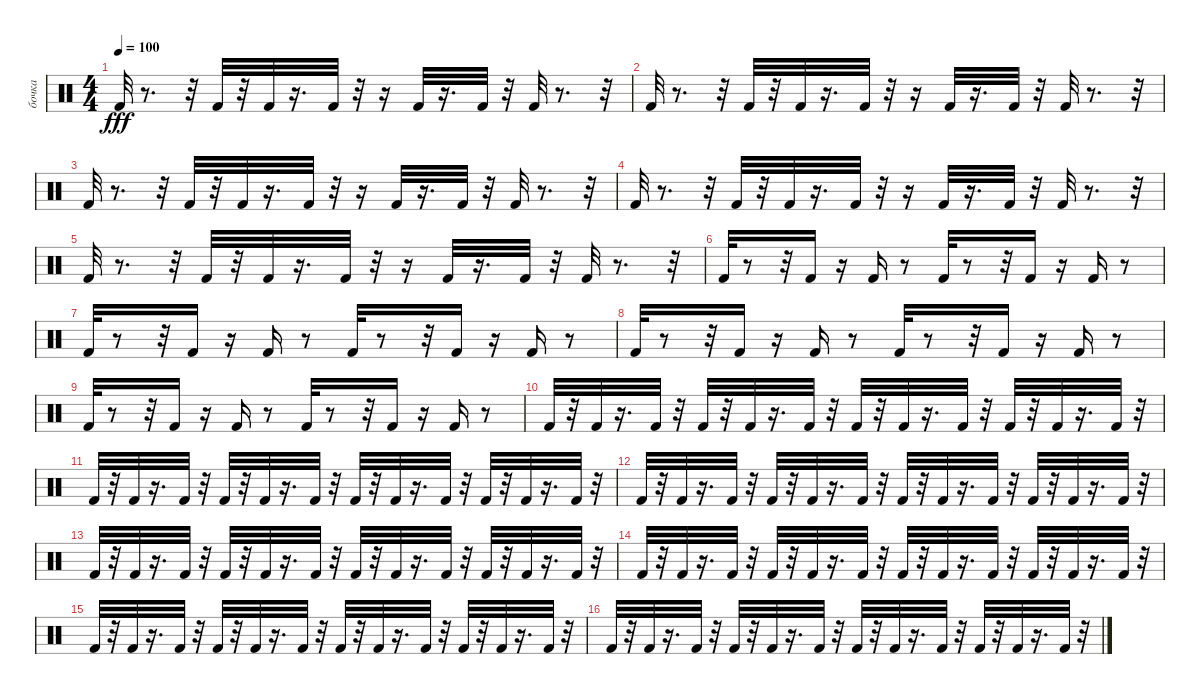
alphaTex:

\track ("бочка" "бочка") {instrument percussion}
\staff {score}
\articulation defaults
\ts (4 4)
\tempo 100
\clef neutral
\ks c "Kick (hit) 2".32{dy fff}
r.8{d} r.32 "Kick (hit) 2".32 r.32 "Kick (hit) 2".32 r.16{d} "Kick (hit) 2".32 r.32 r.16 "Kick (hit) 2".32 r.16{d} "Kick (hit) 2".32 r.32 "Kick (hit) 2".32 r.8{d} r.32 |
"Kick (hit) 2".32 r.8{d} r.32 "Kick (hit) 2".32 r.32 "Kick (hit) 2".32 r.16{d} "Kick (hit) 2".32 r.32 r.16 "Kick (hit) 2".32 r.16{d} "Kick (hit) 2".32 r.32 "Kick (hit) 2".32 r.8{d} r.32 |
"Kick (hit) 2".32 r.8{d} r.32 "Kick (hit) 2".32 r.32 "Kick (hit) 2".32 r.16{d} "Kick (hit) 2".32 r.32 r.16 "Kick (hit) 2".32 r.16{d} "Kick (hit) 2".32 r.32 "Kick (hit) 2".32 r.8{d} r.32 |
"Kick (hit) 2".32 r.8{d} r.32 "Kick (hit) 2".32 r.32 "Kick (hit) 2".32 r.16{d} "Kick (hit) 2".32 r.32 r.16 "Kick (hit) 2".32 r.16{d} "Kick (hit) 2".32 r.32 "Kick (hit) 2".32 r.8{d} r.32 |
"Kick (hit) 2".32 r.8{d} r.32 "Kick (hit) 2".32 r.32 "Kick (hit) 2".32 r.16{d} "Kick (hit) 2".32 r.32 r.16 "Kick (hit) 2".32 r.16{d} "Kick (hit) 2".32 r.32 "Kick (hit) 2".32 r.8{d} r.32 |
"Kick (hit) 2".32 r.8 r.32 "Kick (hit) 2".16 r.16 "Kick (hit) 2".16 r.8 "Kick (hit) 2".32 r.8 r.32 "Kick (hit) 2".16 r.16 "Kick (hit) 2".16 r.8 |
"Kick (hit) 2".32 r.8 r.32 "Kick (hit) 2".16 r.16 "Kick (hit) 2".16 r.8 "Kick (hit) 2".32 r.8 r.32 "Kick (hit) 2".16 r.16 "Kick (hit) 2".16 r.8 |
"Kick (hit) 2".32 r.8 r.32 "Kick (hit) 2".16 r.16 "Kick (hit) 2".16 r.8 "Kick (hit) 2".32 r.8 r.32 "Kick (hit) 2".16 r.16 "Kick (hit) 2".16 r.8 |
"Kick (hit) 2".32 r.8 r.32 "Kick (hit) 2".16 r.16 "Kick (hit) 2".16 r.8 "Kick (hit) 2".32 r.8 r.32 "Kick (hit) 2".16 r.16 "Kick (hit) 2".16 r.8 |
"Kick (hit) 2".32 r.32 "Kick (hit) 2".32 r.16{d} "Kick (hit) 2".32 r.32 "Kick (hit) 2".32 r.32 "Kick (hit) 2".32 r.16{d} "Kick (hit) 2".32 r.32 "Kick (hit) 2".32 r.32 "Kick (hit) 2".32 r.16{d} "Kick (hit) 2".32 r.32 "Kick (hit) 2".32 r.32 "Kick (hit) 2".32 r.16{d} "Kick (hit) 2".32 r.32 |
"Kick (hit) 2".32 r.32 "Kick (hit) 2".32 r.16{d} "Kick (hit) 2".32 r.32 "Kick (hit) 2".32 r.32 "Kick (hit) 2".32 r.16{d} "Kick (hit) 2".32 r.32 "Kick (hit) 2".32 r.32 "Kick (hit) 2".32 r.16{d} "Kick (hit) 2".32 r.32 "Kick (hit) 2".32 r.32 "Kick (hit) 2".32 r.16{d} "Kick (hit) 2".32 r.32 |
"Kick (hit) 2".32 r.32 "Kick (hit) 2".32 r.16{d} "Kick (hit) 2".32 r.32 "Kick (hit) 2".32 r.32 "Kick (hit) 2".32 r.16{d} "Kick (hit) 2".32 r.32 "Kick (hit) 2".32 r.32 "Kick (hit) 2".32 r.16{d} "Kick (hit) 2".32 r.32 "Kick (hit) 2".32 r.32 "Kick (hit) 2".32 r.16{d} "Kick (hit) 2".32 r.32 |
"Kick (hit) 2".32 r.32 "Kick (hit) 2".32 r.16{d} "Kick (hit) 2".32 r.32 "Kick (hit) 2".32 r.32 "Kick (hit) 2".32 r.16{d} "Kick (hit) 2".32 r.32 "Kick (hit) 2".32 r.32 "Kick (hit) 2".32 r.16{d} "Kick (hit) 2".32 r.32 "Kick (hit) 2".32 r.32 "Kick (hit) 2".32 r.16{d} "Kick (hit) 2".32 r.32 |
"Kick (hit) 2".32 r.32 "Kick (hit) 2".32 r.16{d} "Kick (hit) 2".32 r.32 "Kick (hit) 2".32 r.32 "Kick (hit) 2".32 r.16{d} "Kick (hit) 2".32 r.32 "Kick (hit) 2".32 r.32 "Kick (hit) 2".32 r.16{d} "Kick (hit) 2".32 r.32 "Kick (hit) 2".32 r.32 "Kick (hit) 2".32 r.16{d} "Kick (hit) 2".32 r.32 |
"Kick (hit) 2".32 r.32 "Kick (hit) 2".32 r.16{d} "Kick (hit) 2".32 r.32 "Kick (hit) 2".32 r.32 "Kick (hit) 2".32 r.16{d} "Kick (hit) 2".32 r.32 "Kick (hit) 2".32 r.32 "Kick (hit) 2".32 r.16{d} "Kick (hit) 2".32 r.32 "Kick (hit) 2".32 r.32 "Kick (hit) 2".32 r.16{d} "Kick (hit) 2".32 r.32 |
"Kick (hit) 2".32 r.32 "Kick (hit) 2".32 r.16{d} "Kick (hit) 2".32 r.32 "Kick (hit) 2".32 r.32 "Kick (hit) 2".32 r.16{d} "Kick (hit) 2".32 r.32 "Kick (hit) 2".32 r.32 "Kick (hit) 2".32 r.16{d} "Kick (hit) 2".32 r.32 "Kick (hit) 2".32 r.32 "Kick (hit) 2".32 r.16{d} "Kick (hit) 2".32 r.32
